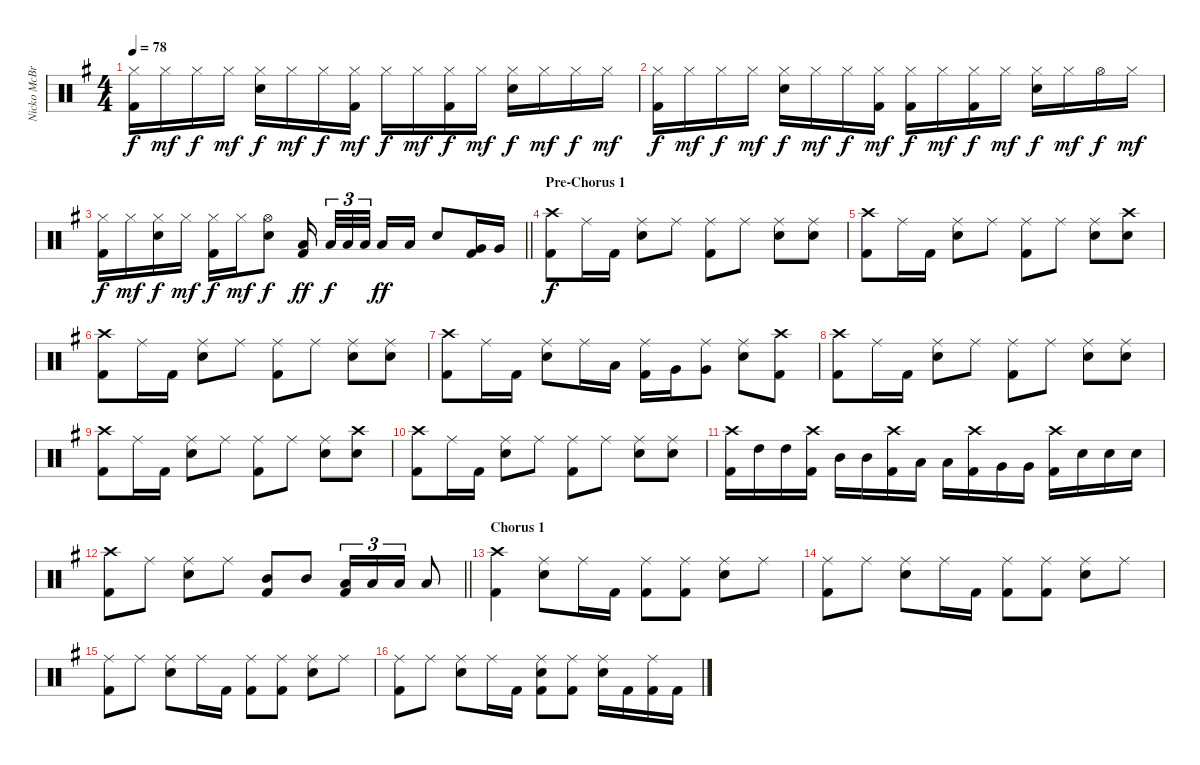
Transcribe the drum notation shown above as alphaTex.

\track ("Nicko McBrain" "Nicko McBr") {instrument percussion}
\staff {score}
\articulation defaults
\ts (4 4)
\tempo 78
\clef neutral
\ks g
("Hi-Hat (closed)" "Kick (hit) 2").16{dy f} "Hi-Hat (closed)".16{dy mf} "Hi-Hat (closed)".16{dy f} "Hi-Hat (closed)".16{dy mf} ("Hi-Hat (closed)" "Electric Snare (hit)").16{dy f} "Hi-Hat (closed)".16{dy mf} "Hi-Hat (closed)".16{dy f} ("Hi-Hat (closed)" "Kick (hit) 2").16{dy mf} "Hi-Hat (closed)".16{dy f} "Hi-Hat (closed)".16{dy mf} ("Hi-Hat (closed)" "Kick (hit) 2").16{dy f} "Hi-Hat (closed)".16{dy mf} ("Hi-Hat (closed)" "Electric Snare (hit)").16{dy f} "Hi-Hat (closed)".16{dy mf} "Hi-Hat (closed)".16{dy f} "Hi-Hat (closed)".16{dy mf} |
("Hi-Hat (closed)" "Kick (hit) 2").16{dy f} "Hi-Hat (closed)".16{dy mf} "Hi-Hat (closed)".16{dy f} "Hi-Hat (closed)".16{dy mf} ("Hi-Hat (closed)" "Electric Snare (hit)").16{dy f} "Hi-Hat (closed)".16{dy mf} "Hi-Hat (closed)".16{dy f} ("Hi-Hat (closed)" "Kick (hit) 2").16{dy mf} ("Hi-Hat (closed)" "Kick (hit) 2").16{dy f} "Hi-Hat (closed)".16{dy mf} ("Hi-Hat (closed)" "Kick (hit) 2").16{dy f} "Hi-Hat (closed)".16{dy mf} ("Hi-Hat (closed)" "Electric Snare (hit)").16{dy f} "Hi-Hat (closed)".16{dy mf} "Hi-Hat (open)".16{dy f} "Hi-Hat (closed)".16{dy mf} |
\barLineRight lightlight
("Hi-Hat (closed)" "Kick (hit) 2").16{dy f} "Hi-Hat (closed)".16{dy mf} ("Hi-Hat (closed)" "Electric Snare (hit)").16{dy f} "Hi-Hat (closed)".16{dy mf} ("Hi-Hat (closed)" "Kick (hit) 2").16{dy f} "Hi-Hat (closed)".16{dy mf} ("Hi-Hat (open)" "Electric Snare (hit)").8{dy f} ("Low Tom (hit)" "Kick (hit) 2").16{dy ff beam splitsecondary} "Low Tom (hit)".32{tu (3 2) dy f} "Low Tom (hit)".32{tu (3 2)} "Low Tom (hit)".32{tu (3 2) beam splitsecondary} "Low Tom (hit)".16{dy ff} "Low Tom (hit)".16 "Electric Snare (hit)".8 ("Very Low Tom (hit)" "Kick (hit) 2").16 "Very Low Tom (hit)".16 |
\section ("" "Pre-Chorus 1")
("Crash high (hit)" "Kick (hit) 2").8{dy f} "Ride (middle)".16 "Kick (hit) 2".16 ("Ride (middle)" "Electric Snare (hit)").8 "Ride (middle)".8 ("Ride (middle)" "Kick (hit) 2").8 "Ride (middle)".8 ("Ride (middle)" "Electric Snare (hit)").8 ("Ride (middle)" "Electric Snare (hit)").8 |
("Crash high (hit)" "Kick (hit) 2").8 "Ride (middle)".16 "Kick (hit) 2".16 ("Ride (middle)" "Electric Snare (hit)").8 "Ride (middle)".8 ("Ride (middle)" "Kick (hit) 2").8 "Ride (middle)".8 ("Ride (middle)" "Electric Snare (hit)").8 ("Crash high (hit)" "Electric Snare (hit)").8 |
("Crash high (hit)" "Kick (hit) 2").8 "Ride (middle)".16 "Kick (hit) 2".16 ("Ride (middle)" "Electric Snare (hit)").8 "Ride (middle)".8 ("Ride (middle)" "Kick (hit) 2").8 "Ride (middle)".8 ("Ride (middle)" "Electric Snare (hit)").8 ("Ride (middle)" "Electric Snare (hit)").8 |
("Crash high (hit)" "Kick (hit) 2").8 "Ride (middle)".16 "Kick (hit) 2".16 ("Ride (middle)" "Electric Snare (hit)").8 "Ride (middle)".16 "Low Tom (hit)".16 ("Ride (middle)" "Kick (hit) 2").16 "Very Low Tom (hit)".16 ("Ride (middle)" "Very Low Tom (hit)").8 ("Ride (middle)" "Electric Snare (hit)").8 ("Crash high (hit)" "Kick (hit) 2").8 |
("Crash high (hit)" "Kick (hit) 2").8 "Ride (middle)".16 "Kick (hit) 2".16 ("Ride (middle)" "Electric Snare (hit)").8 "Ride (middle)".8 ("Ride (middle)" "Kick (hit) 2").8 "Ride (middle)".8 ("Ride (middle)" "Electric Snare (hit)").8 ("Ride (middle)" "Electric Snare (hit)").8 |
("Crash high (hit)" "Kick (hit) 2").8 "Ride (middle)".16 "Kick (hit) 2".16 ("Ride (middle)" "Electric Snare (hit)").8 "Ride (middle)".8 ("Ride (middle)" "Kick (hit) 2").8 "Ride (middle)".8 ("Ride (middle)" "Electric Snare (hit)").8 ("Crash high (hit)" "Electric Snare (hit)").8 |
("Crash high (hit)" "Kick (hit) 2").8 "Ride (middle)".16 "Kick (hit) 2".16 ("Ride (middle)" "Electric Snare (hit)").8 "Ride (middle)".8 ("Ride (middle)" "Kick (hit) 2").8 "Ride (middle)".8 ("Ride (middle)" "Electric Snare (hit)").8 ("Ride (middle)" "Electric Snare (hit)").8 |
("Crash high (hit)" "Kick (hit) 2").16 "High Tom (hit)".16 "High Tom (hit)".16 ("Crash high (hit)" "Kick (hit) 2").16 "Mid Tom (hit)".16 "Mid Tom (hit)".16 ("Crash high (hit)" "Kick (hit) 2").16 "Low Tom (hit)".16 "Low Tom (hit)".16 ("Crash high (hit)" "Kick (hit) 2").16 "Very Low Tom (hit)".16 "Very Low Tom (hit)".16 ("Crash high (hit)" "Kick (hit) 2").16 "Electric Snare (hit)".16 "Electric Snare (hit)".16 "Electric Snare (hit)".16 |
\barLineRight lightlight
("Crash high (hit)" "Kick (hit) 2").8 "Ride (middle)".8 ("Ride (middle)" "Electric Snare (hit)").8 "Ride (middle)".8 ("Mid Tom (hit)" "Kick (hit) 2").8 "Mid Tom (hit)".8 ("Low Tom (hit)" "Kick (hit) 2").16{tu (3 2)} "Low Tom (hit)".16{tu (3 2)} "Low Tom (hit)".16{tu (3 2)} "Low Tom (hit)".8 |
\section ("" "Chorus 1")
("Crash high (hit)" "Kick (hit) 2").4 ("Ride (middle)" "Electric Snare (hit)").8 "Ride (middle)".16 "Kick (hit) 2".16 ("Ride (middle)" "Kick (hit) 2").8 ("Ride (middle)" "Kick (hit) 2").8 ("Ride (middle)" "Electric Snare (hit)").8 "Ride (middle)".8 |
("Ride (middle)" "Kick (hit) 2").8 "Ride (middle)".8 ("Ride (middle)" "Electric Snare (hit)").8 "Ride (middle)".16 "Kick (hit) 2".16 ("Ride (middle)" "Kick (hit) 2").8 ("Ride (middle)" "Kick (hit) 2").8 ("Ride (middle)" "Electric Snare (hit)").8 "Ride (middle)".8 |
("Ride (middle)" "Kick (hit) 2").8 "Ride (middle)".8 ("Ride (middle)" "Electric Snare (hit)").8 "Ride (middle)".16 "Kick (hit) 2".16 ("Ride (middle)" "Kick (hit) 2").8 ("Ride (middle)" "Kick (hit) 2").8 ("Ride (middle)" "Electric Snare (hit)").8 "Ride (middle)".8 |
("Ride (middle)" "Kick (hit) 2").8 "Ride (middle)".8 ("Ride (middle)" "Electric Snare (hit)").8 "Ride (middle)".16 "Kick (hit) 2".16 ("Ride (middle)" "Electric Snare (hit)" "Kick (hit) 2").8 ("Ride (middle)" "Kick (hit) 2").8 ("Ride (middle)" "Electric Snare (hit)").16 "Kick (hit) 2".16 ("Ride (middle)" "Kick (hit) 2").16 "Kick (hit) 2".16
